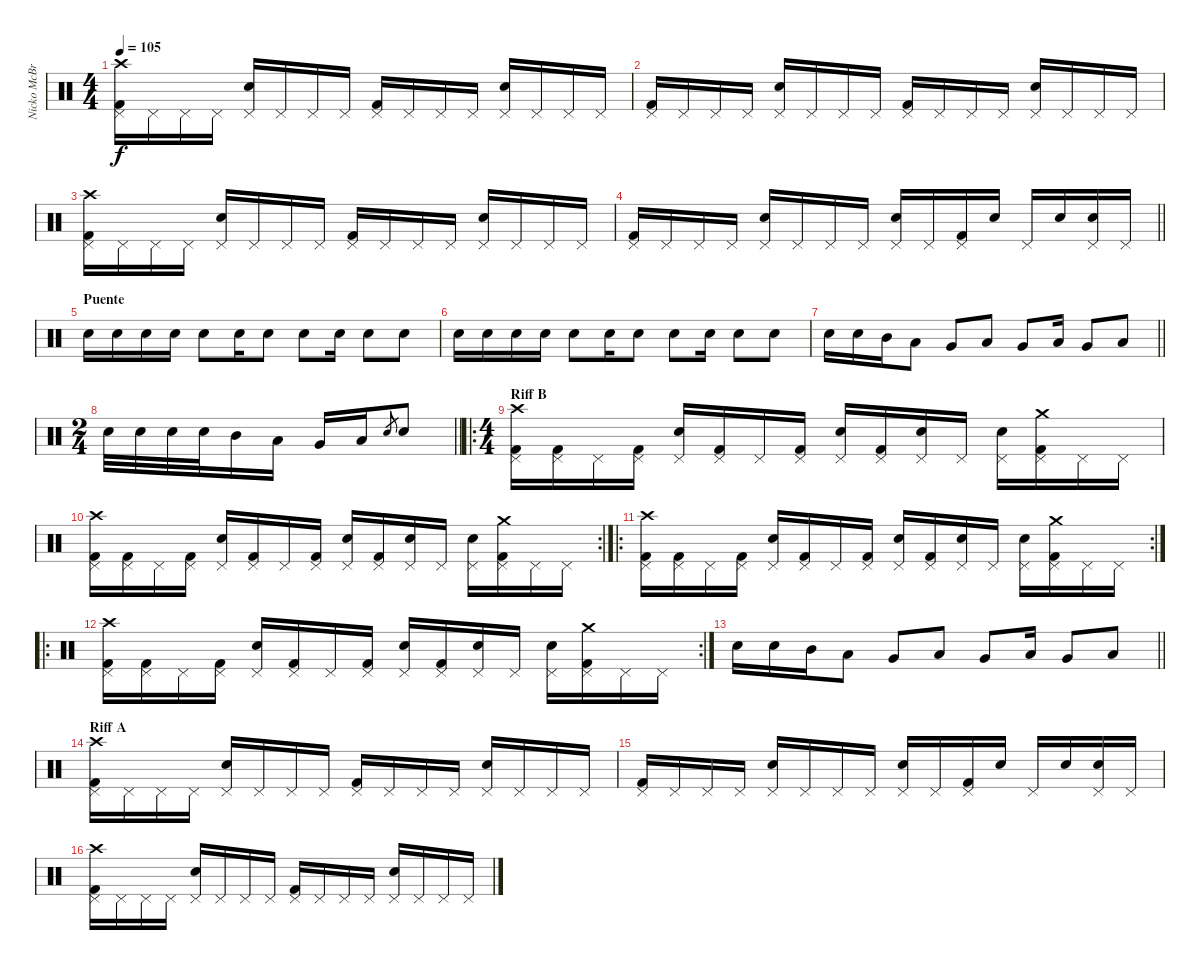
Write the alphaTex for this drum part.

\track ("Nicko McBrain" "Nicko McBr") {instrument percussion}
\staff {score}
\articulation defaults
\ts (4 4)
\tempo 105
\clef neutral
\ks c
("Kick (hit) 2" "Pedal Hi-Hat (hit)" "Crash high (hit)").16{dy f} "Pedal Hi-Hat (hit)".16 "Pedal Hi-Hat (hit)".16 "Pedal Hi-Hat (hit)".16 ("Snare (hit) 2" "Pedal Hi-Hat (hit)").16 "Pedal Hi-Hat (hit)".16 "Pedal Hi-Hat (hit)".16 "Pedal Hi-Hat (hit)".16 ("Kick (hit) 2" "Pedal Hi-Hat (hit)").16 "Pedal Hi-Hat (hit)".16 "Pedal Hi-Hat (hit)".16 "Pedal Hi-Hat (hit)".16 ("Snare (hit) 2" "Pedal Hi-Hat (hit)").16 "Pedal Hi-Hat (hit)".16 "Pedal Hi-Hat (hit)".16 "Pedal Hi-Hat (hit)".16 |
("Kick (hit) 2" "Pedal Hi-Hat (hit)").16 "Pedal Hi-Hat (hit)".16 "Pedal Hi-Hat (hit)".16 "Pedal Hi-Hat (hit)".16 ("Snare (hit) 2" "Pedal Hi-Hat (hit)").16 "Pedal Hi-Hat (hit)".16 "Pedal Hi-Hat (hit)".16 "Pedal Hi-Hat (hit)".16 ("Kick (hit) 2" "Pedal Hi-Hat (hit)").16 "Pedal Hi-Hat (hit)".16 "Pedal Hi-Hat (hit)".16 "Pedal Hi-Hat (hit)".16 ("Snare (hit) 2" "Pedal Hi-Hat (hit)").16 "Pedal Hi-Hat (hit)".16 "Pedal Hi-Hat (hit)".16 "Pedal Hi-Hat (hit)".16 |
("Kick (hit) 2" "Pedal Hi-Hat (hit)" "Crash high (hit)").16 "Pedal Hi-Hat (hit)".16 "Pedal Hi-Hat (hit)".16 "Pedal Hi-Hat (hit)".16 ("Snare (hit) 2" "Pedal Hi-Hat (hit)").16 "Pedal Hi-Hat (hit)".16 "Pedal Hi-Hat (hit)".16 "Pedal Hi-Hat (hit)".16 ("Kick (hit) 2" "Pedal Hi-Hat (hit)").16 "Pedal Hi-Hat (hit)".16 "Pedal Hi-Hat (hit)".16 "Pedal Hi-Hat (hit)".16 ("Snare (hit) 2" "Pedal Hi-Hat (hit)").16 "Pedal Hi-Hat (hit)".16 "Pedal Hi-Hat (hit)".16 "Pedal Hi-Hat (hit)".16 |
\barLineRight lightlight
("Kick (hit) 2" "Pedal Hi-Hat (hit)").16 "Pedal Hi-Hat (hit)".16 "Pedal Hi-Hat (hit)".16 "Pedal Hi-Hat (hit)".16 ("Snare (hit) 2" "Pedal Hi-Hat (hit)").16 "Pedal Hi-Hat (hit)".16 "Pedal Hi-Hat (hit)".16 "Pedal Hi-Hat (hit)".16 ("Snare (hit) 2" "Pedal Hi-Hat (hit)").16 "Pedal Hi-Hat (hit)".16 ("Kick (hit) 2" "Pedal Hi-Hat (hit)").16 "Snare (hit) 2".16 "Pedal Hi-Hat (hit)".16 "Snare (hit) 2".16 ("Snare (hit) 2" "Pedal Hi-Hat (hit)").16 "Pedal Hi-Hat (hit)".16 |
\section ("" "Puente")
"Snare (hit) 2".16 "Snare (hit) 2".16 "Snare (hit) 2".16 "Snare (hit) 2".16 "Snare (hit) 2".8 "Snare (hit) 2".16 "Snare (hit) 2".8 "Snare (hit) 2".8 "Snare (hit) 2".16 "Snare (hit) 2".8 "Snare (hit) 2".8 |
"Snare (hit) 2".16 "Snare (hit) 2".16 "Snare (hit) 2".16 "Snare (hit) 2".16 "Snare (hit) 2".8 "Snare (hit) 2".16 "Snare (hit) 2".8 "Snare (hit) 2".8 "Snare (hit) 2".16 "Snare (hit) 2".8 "Snare (hit) 2".8 |
\barLineRight lightlight "Snare (hit) 2".16 "Snare (hit) 2".16 "Mid Tom (hit)".16 "Low Tom (hit)".8 "Very Low Tom (hit)".8 "Low Tom (hit)".8 "Very Low Tom (hit)".8 "Low Floor Tom (hit)".16 "Very Low Tom (hit)".8 "Low Floor Tom (hit)".8
|
\ts (2 4)
\barLineRight lightlight "Snare (hit) 2".32 "Snare (hit) 2".32 "Snare (hit) 2".32 "Snare (hit) 2".32 "Mid Tom (hit)".16 "Low Tom (hit)".16 "Very Low Tom (hit)".16 "Low Floor Tom (hit)".16 "Snare (hit) 2".8{gr} "Snare (hit) 2".8
|
\ro
\ts (4 4)
\section ("" "Riff B")
("Kick (hit) 2" "Pedal Hi-Hat (hit)" "Crash high (hit)").16 ("Kick (hit) 2" "Pedal Hi-Hat (hit)").16 "Pedal Hi-Hat (hit)".16 ("Kick (hit) 2" "Pedal Hi-Hat (hit)").16 ("Snare (hit) 2" "Pedal Hi-Hat (hit)").16 ("Kick (hit) 2" "Pedal Hi-Hat (hit)").16 "Pedal Hi-Hat (hit)".16 ("Kick (hit) 2" "Pedal Hi-Hat (hit)").16 ("Snare (hit) 2" "Pedal Hi-Hat (hit)").16 ("Kick (hit) 2" "Pedal Hi-Hat (hit)").16 ("Snare (hit) 2" "Pedal Hi-Hat (hit)").16 "Pedal Hi-Hat (hit)".16 ("Snare (hit) 2" "Pedal Hi-Hat (hit)").16 ("Kick (hit) 2" "Pedal Hi-Hat (hit)" "Crash medium (hit)").16 "Pedal Hi-Hat (hit)".16 "Pedal Hi-Hat (hit)".16 |
\rc 2
("Kick (hit) 2" "Pedal Hi-Hat (hit)" "Crash high (hit)").16 ("Kick (hit) 2" "Pedal Hi-Hat (hit)").16 "Pedal Hi-Hat (hit)".16 ("Kick (hit) 2" "Pedal Hi-Hat (hit)").16 ("Snare (hit) 2" "Pedal Hi-Hat (hit)").16 ("Kick (hit) 2" "Pedal Hi-Hat (hit)").16 "Pedal Hi-Hat (hit)".16 ("Kick (hit) 2" "Pedal Hi-Hat (hit)").16 ("Snare (hit) 2" "Pedal Hi-Hat (hit)").16 ("Kick (hit) 2" "Pedal Hi-Hat (hit)").16 ("Snare (hit) 2" "Pedal Hi-Hat (hit)").16 "Pedal Hi-Hat (hit)".16 ("Snare (hit) 2" "Pedal Hi-Hat (hit)").16 ("Kick (hit) 2" "Pedal Hi-Hat (hit)" "Crash medium (hit)").16 "Pedal Hi-Hat (hit)".16 "Pedal Hi-Hat (hit)".16 |
\ro
\rc 2
("Kick (hit) 2" "Pedal Hi-Hat (hit)" "Crash high (hit)").16 ("Kick (hit) 2" "Pedal Hi-Hat (hit)").16 "Pedal Hi-Hat (hit)".16 ("Kick (hit) 2" "Pedal Hi-Hat (hit)").16 ("Snare (hit) 2" "Pedal Hi-Hat (hit)").16 ("Kick (hit) 2" "Pedal Hi-Hat (hit)").16 "Pedal Hi-Hat (hit)".16 ("Kick (hit) 2" "Pedal Hi-Hat (hit)").16 ("Snare (hit) 2" "Pedal Hi-Hat (hit)").16 ("Kick (hit) 2" "Pedal Hi-Hat (hit)").16 ("Snare (hit) 2" "Pedal Hi-Hat (hit)").16 "Pedal Hi-Hat (hit)".16 ("Snare (hit) 2" "Pedal Hi-Hat (hit)").16 ("Kick (hit) 2" "Pedal Hi-Hat (hit)" "Crash medium (hit)").16 "Pedal Hi-Hat (hit)".16 "Pedal Hi-Hat (hit)".16 |
\ro
\rc 2
("Kick (hit) 2" "Pedal Hi-Hat (hit)" "Crash high (hit)").16 ("Kick (hit) 2" "Pedal Hi-Hat (hit)").16 "Pedal Hi-Hat (hit)".16 ("Kick (hit) 2" "Pedal Hi-Hat (hit)").16 ("Snare (hit) 2" "Pedal Hi-Hat (hit)").16 ("Kick (hit) 2" "Pedal Hi-Hat (hit)").16 "Pedal Hi-Hat (hit)".16 ("Kick (hit) 2" "Pedal Hi-Hat (hit)").16 ("Snare (hit) 2" "Pedal Hi-Hat (hit)").16 ("Kick (hit) 2" "Pedal Hi-Hat (hit)").16 ("Snare (hit) 2" "Pedal Hi-Hat (hit)").16 "Pedal Hi-Hat (hit)".16 ("Snare (hit) 2" "Pedal Hi-Hat (hit)").16 ("Kick (hit) 2" "Pedal Hi-Hat (hit)" "Crash medium (hit)").16 "Pedal Hi-Hat (hit)".16 "Pedal Hi-Hat (hit)".16 |
\barLineRight lightlight "Snare (hit) 2".16 "Snare (hit) 2".16 "Mid Tom (hit)".16 "Low Tom (hit)".8 "Very Low Tom (hit)".8 "Low Tom (hit)".8 "Very Low Tom (hit)".8 "Low Floor Tom (hit)".16 "Very Low Tom (hit)".8 "Low Floor Tom (hit)".8
|
\section ("" "Riff A")
("Kick (hit) 2" "Pedal Hi-Hat (hit)" "Crash high (hit)").16 "Pedal Hi-Hat (hit)".16 "Pedal Hi-Hat (hit)".16 "Pedal Hi-Hat (hit)".16 ("Snare (hit) 2" "Pedal Hi-Hat (hit)").16 "Pedal Hi-Hat (hit)".16 "Pedal Hi-Hat (hit)".16 "Pedal Hi-Hat (hit)".16 ("Kick (hit) 2" "Pedal Hi-Hat (hit)").16 "Pedal Hi-Hat (hit)".16 "Pedal Hi-Hat (hit)".16 "Pedal Hi-Hat (hit)".16 ("Snare (hit) 2" "Pedal Hi-Hat (hit)").16 "Pedal Hi-Hat (hit)".16 "Pedal Hi-Hat (hit)".16 "Pedal Hi-Hat (hit)".16 |
("Kick (hit) 2" "Pedal Hi-Hat (hit)").16 "Pedal Hi-Hat (hit)".16 "Pedal Hi-Hat (hit)".16 "Pedal Hi-Hat (hit)".16 ("Snare (hit) 2" "Pedal Hi-Hat (hit)").16 "Pedal Hi-Hat (hit)".16 "Pedal Hi-Hat (hit)".16 "Pedal Hi-Hat (hit)".16 ("Snare (hit) 2" "Pedal Hi-Hat (hit)").16 "Pedal Hi-Hat (hit)".16 ("Kick (hit) 2" "Pedal Hi-Hat (hit)").16 "Snare (hit) 2".16 "Pedal Hi-Hat (hit)".16 "Snare (hit) 2".16 ("Snare (hit) 2" "Pedal Hi-Hat (hit)").16 "Pedal Hi-Hat (hit)".16 |
("Kick (hit) 2" "Pedal Hi-Hat (hit)" "Crash high (hit)").16 "Pedal Hi-Hat (hit)".16 "Pedal Hi-Hat (hit)".16 "Pedal Hi-Hat (hit)".16 ("Snare (hit) 2" "Pedal Hi-Hat (hit)").16 "Pedal Hi-Hat (hit)".16 "Pedal Hi-Hat (hit)".16 "Pedal Hi-Hat (hit)".16 ("Kick (hit) 2" "Pedal Hi-Hat (hit)").16 "Pedal Hi-Hat (hit)".16 "Pedal Hi-Hat (hit)".16 "Pedal Hi-Hat (hit)".16 ("Snare (hit) 2" "Pedal Hi-Hat (hit)").16 "Pedal Hi-Hat (hit)".16 "Pedal Hi-Hat (hit)".16 "Pedal Hi-Hat (hit)".16
